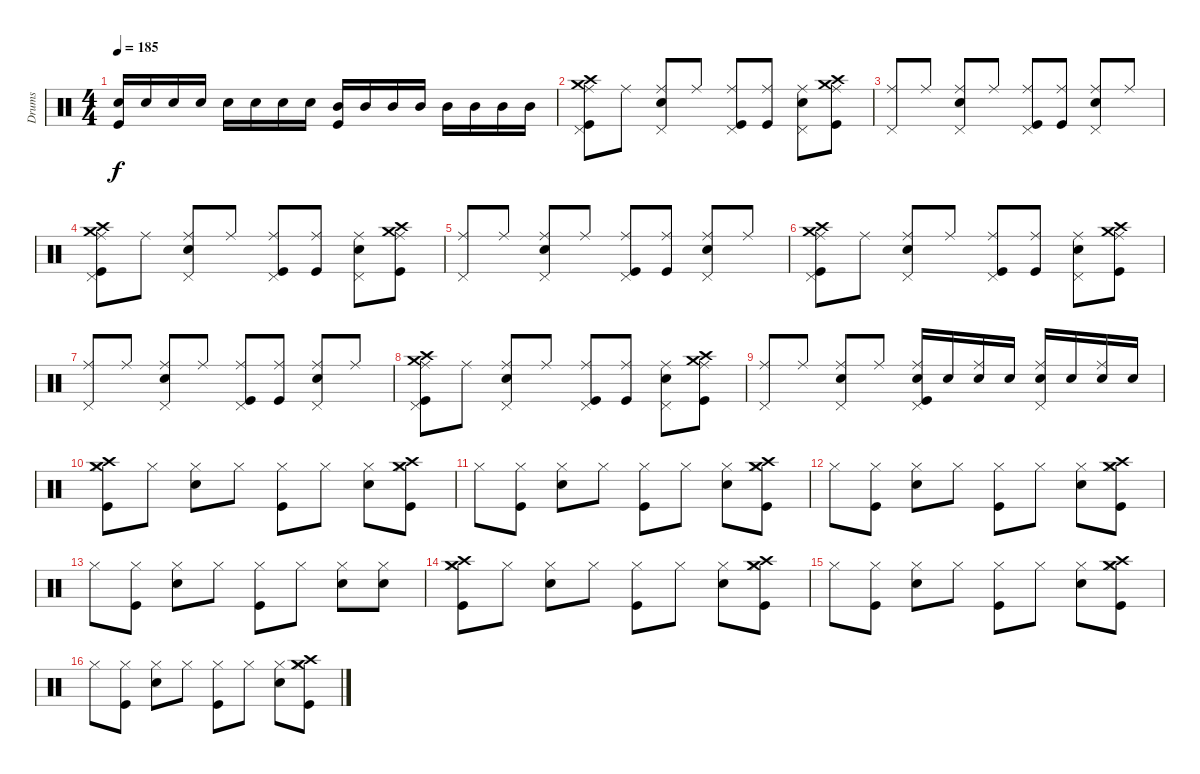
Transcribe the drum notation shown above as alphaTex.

\track ("Drums" "Drums") {instrument percussion}
\staff {score}
\articulation defaults
\ts (4 4)
\tempo 185
\clef neutral
\ks c
("Electric Snare (hit)" "Kick (hit)").16{dy f} "Electric Snare (hit)".16 "Electric Snare (hit)".16 "Electric Snare (hit)".16 "Electric Snare (hit)".16 "Electric Snare (hit)".16 "Electric Snare (hit)".16 "Electric Snare (hit)".16 ("Mid Tom (hit)" "Kick (hit)").16 "Mid Tom (hit)".16 "Mid Tom (hit)".16 "Mid Tom (hit)".16 "Mid Tom (hit)".16 "Mid Tom (hit)".16 "Mid Tom (hit)".16 "Mid Tom (hit)".16 |
("Ride (middle)" "Pedal Hi-Hat (hit)" "Crash medium (hit)" "Crash high (hit)" "Kick (hit)").8 "Ride (middle)".8 ("Ride (middle)" "Pedal Hi-Hat (hit)" "Electric Snare (hit)").8 "Ride (middle)".8 ("Ride (middle)" "Pedal Hi-Hat (hit)" "Kick (hit)").8 ("Kick (hit)" "Ride (middle)").8 ("Ride (middle)" "Pedal Hi-Hat (hit)" "Electric Snare (hit)").8 ("Kick (hit)" "Crash high (hit)" "Crash medium (hit)" "Ride (middle)").8 |
("Pedal Hi-Hat (hit)" "Ride (middle)").8 "Ride (middle)".8 ("Ride (middle)" "Electric Snare (hit)" "Pedal Hi-Hat (hit)").8 "Ride (middle)".8 ("Ride (middle)" "Kick (hit)" "Pedal Hi-Hat (hit)").8 ("Ride (middle)" "Kick (hit)").8 ("Pedal Hi-Hat (hit)" "Ride (middle)" "Electric Snare (hit)").8 "Ride (middle)".8 |
("Kick (hit)" "Pedal Hi-Hat (hit)" "Ride (middle)" "Crash high (hit)" "Crash medium (hit)").8 "Ride (middle)".8 ("Electric Snare (hit)" "Pedal Hi-Hat (hit)" "Ride (middle)").8 "Ride (middle)".8 ("Kick (hit)" "Pedal Hi-Hat (hit)" "Ride (middle)").8 ("Kick (hit)" "Ride (middle)").8 ("Electric Snare (hit)" "Pedal Hi-Hat (hit)" "Ride (middle)").8 ("Crash medium (hit)" "Crash high (hit)" "Kick (hit)" "Ride (middle)").8 |
("Ride (middle)" "Pedal Hi-Hat (hit)").8 "Ride (middle)".8 ("Ride (middle)" "Pedal Hi-Hat (hit)" "Electric Snare (hit)").8 "Ride (middle)".8 ("Kick (hit)" "Ride (middle)" "Pedal Hi-Hat (hit)").8 ("Kick (hit)" "Ride (middle)").8 ("Ride (middle)" "Pedal Hi-Hat (hit)" "Electric Snare (hit)").8 "Ride (middle)".8 |
("Ride (middle)" "Pedal Hi-Hat (hit)" "Crash medium (hit)" "Crash high (hit)" "Kick (hit)").8 "Ride (middle)".8 ("Ride (middle)" "Pedal Hi-Hat (hit)" "Electric Snare (hit)").8 "Ride (middle)".8 ("Ride (middle)" "Pedal Hi-Hat (hit)" "Kick (hit)").8 ("Kick (hit)" "Ride (middle)").8 ("Ride (middle)" "Pedal Hi-Hat (hit)" "Electric Snare (hit)").8 ("Kick (hit)" "Crash high (hit)" "Crash medium (hit)" "Ride (middle)").8 |
("Ride (middle)" "Pedal Hi-Hat (hit)").8 "Ride (middle)".8 ("Ride (middle)" "Pedal Hi-Hat (hit)" "Electric Snare (hit)").8 "Ride (middle)".8 ("Kick (hit)" "Ride (middle)" "Pedal Hi-Hat (hit)").8 ("Kick (hit)" "Ride (middle)").8 ("Ride (middle)" "Pedal Hi-Hat (hit)" "Electric Snare (hit)").8 "Ride (middle)".8 |
("Kick (hit)" "Pedal Hi-Hat (hit)" "Ride (middle)" "Crash high (hit)" "Crash medium (hit)").8 "Ride (middle)".8 ("Electric Snare (hit)" "Pedal Hi-Hat (hit)" "Ride (middle)").8 "Ride (middle)".8 ("Kick (hit)" "Pedal Hi-Hat (hit)" "Ride (middle)").8 ("Kick (hit)" "Ride (middle)").8 ("Electric Snare (hit)" "Pedal Hi-Hat (hit)" "Ride (middle)").8 ("Crash medium (hit)" "Crash high (hit)" "Kick (hit)" "Ride (middle)").8 |
("Ride (middle)" "Pedal Hi-Hat (hit)").8 "Ride (middle)".8 ("Ride (middle)" "Pedal Hi-Hat (hit)" "Electric Snare (hit)").8 "Ride (middle)".8 ("Electric Snare (hit)" "Kick (hit)" "Ride (middle)" "Pedal Hi-Hat (hit)").16 "Electric Snare (hit)".16 ("Electric Snare (hit)" "Ride (middle)").16 "Electric Snare (hit)".16 ("Electric Snare (hit)" "Ride (middle)" "Pedal Hi-Hat (hit)").16 "Electric Snare (hit)".16 ("Electric Snare (hit)" "Ride (middle)").16 "Electric Snare (hit)".16 |
("Hi-Hat (closed)" "Kick (hit)" "Crash high (hit)" "Crash medium (hit)").8 "Hi-Hat (closed)".8 ("Electric Snare (hit)" "Hi-Hat (closed)").8 "Hi-Hat (closed)".8 ("Hi-Hat (closed)" "Kick (hit)").8 "Hi-Hat (closed)".8 ("Hi-Hat (closed)" "Electric Snare (hit)").8 ("Hi-Hat (closed)" "Kick (hit)" "Crash high (hit)" "Crash medium (hit)").8 |
"Hi-Hat (closed)".8 ("Hi-Hat (closed)" "Kick (hit)").8 ("Hi-Hat (closed)" "Electric Snare (hit)").8 "Hi-Hat (closed)".8 ("Kick (hit)" "Hi-Hat (closed)").8 "Hi-Hat (closed)".8 ("Electric Snare (hit)" "Hi-Hat (closed)").8 ("Crash medium (hit)" "Hi-Hat (closed)" "Kick (hit)" "Crash high (hit)").8 |
"Hi-Hat (closed)".8 ("Hi-Hat (closed)" "Kick (hit)").8 ("Electric Snare (hit)" "Hi-Hat (closed)").8 "Hi-Hat (closed)".8 ("Hi-Hat (closed)" "Kick (hit)").8 "Hi-Hat (closed)".8 ("Hi-Hat (closed)" "Electric Snare (hit)").8 ("Hi-Hat (closed)" "Kick (hit)" "Crash high (hit)" "Crash medium (hit)").8 |
"Hi-Hat (closed)".8 ("Kick (hit)" "Hi-Hat (closed)").8 ("Electric Snare (hit)" "Hi-Hat (closed)").8 "Hi-Hat (closed)".8 ("Hi-Hat (closed)" "Kick (hit)").8 "Hi-Hat (closed)".8 ("Hi-Hat (closed)" "Electric Snare (hit)").8 ("Electric Snare (hit)" "Hi-Hat (closed)").8 |
("Crash high (hit)" "Crash medium (hit)" "Hi-Hat (closed)" "Kick (hit)").8 "Hi-Hat (closed)".8 ("Electric Snare (hit)" "Hi-Hat (closed)").8 "Hi-Hat (closed)".8 ("Hi-Hat (closed)" "Kick (hit)").8 "Hi-Hat (closed)".8 ("Hi-Hat (closed)" "Electric Snare (hit)").8 ("Crash medium (hit)" "Crash high (hit)" "Hi-Hat (closed)" "Kick (hit)").8 |
"Hi-Hat (closed)".8 ("Kick (hit)" "Hi-Hat (closed)").8 ("Electric Snare (hit)" "Hi-Hat (closed)").8 "Hi-Hat (closed)".8 ("Hi-Hat (closed)" "Kick (hit)").8 "Hi-Hat (closed)".8 ("Hi-Hat (closed)" "Electric Snare (hit)").8 ("Crash medium (hit)" "Hi-Hat (closed)" "Kick (hit)" "Crash high (hit)").8 |
"Hi-Hat (closed)".8 ("Kick (hit)" "Hi-Hat (closed)").8 ("Electric Snare (hit)" "Hi-Hat (closed)").8 "Hi-Hat (closed)".8 ("Hi-Hat (closed)" "Kick (hit)").8 "Hi-Hat (closed)".8 ("Hi-Hat (closed)" "Electric Snare (hit)").8 ("Crash medium (hit)" "Hi-Hat (closed)" "Kick (hit)" "Crash high (hit)").8
